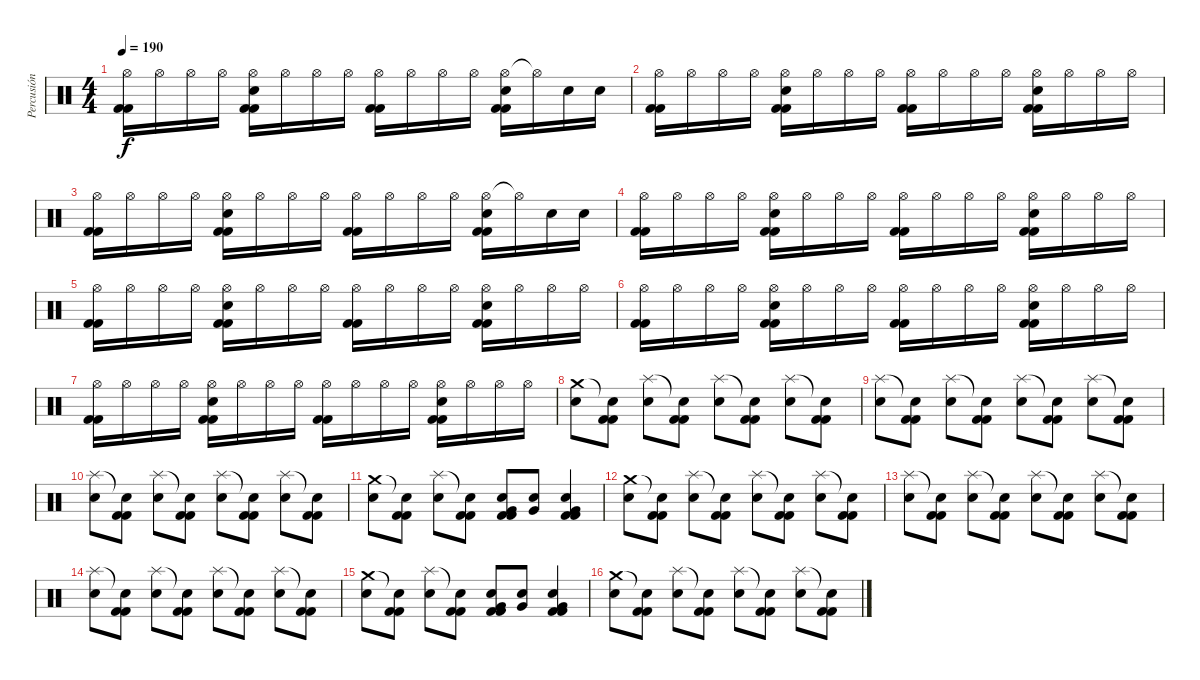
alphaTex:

\track ("Percusión" "Percusión") {instrument percussion}
\staff {score}
\articulation defaults
\ts (4 4)
\tempo 190
\clef neutral
\ks c
("Hi-Hat (open)" "Kick (hit) 2" "Kick (hit) 2").16{dy f} "Hi-Hat (open)".16 "Hi-Hat (open)".16 "Hi-Hat (open)".16 ("Hi-Hat (open)" "Electric Snare (hit)" "Kick (hit) 2" "Kick (hit) 2").16 "Hi-Hat (open)".16 "Hi-Hat (open)".16 "Hi-Hat (open)".16 ("Hi-Hat (open)" "Kick (hit) 2" "Kick (hit) 2").16 "Hi-Hat (open)".16 "Hi-Hat (open)".16 "Hi-Hat (open)".16 ("Hi-Hat (open)" "Electric Snare (hit)" "Kick (hit) 2" "Kick (hit) 2").16 "Hi-Hat (open)"{t}.16 "Electric Snare (hit)".16 "Electric Snare (hit)".16 |
("Hi-Hat (open)" "Kick (hit) 2" "Kick (hit) 2").16 "Hi-Hat (open)".16 "Hi-Hat (open)".16 "Hi-Hat (open)".16 ("Hi-Hat (open)" "Electric Snare (hit)" "Kick (hit) 2" "Kick (hit) 2").16 "Hi-Hat (open)".16 "Hi-Hat (open)".16 "Hi-Hat (open)".16 ("Hi-Hat (open)" "Kick (hit) 2" "Kick (hit) 2").16 "Hi-Hat (open)".16 "Hi-Hat (open)".16 "Hi-Hat (open)".16 ("Hi-Hat (open)" "Electric Snare (hit)" "Kick (hit) 2" "Kick (hit) 2").16 "Hi-Hat (open)".16 "Hi-Hat (open)".16 "Hi-Hat (open)".16 |
("Hi-Hat (open)" "Kick (hit) 2" "Kick (hit) 2").16 "Hi-Hat (open)".16 "Hi-Hat (open)".16 "Hi-Hat (open)".16 ("Hi-Hat (open)" "Electric Snare (hit)" "Kick (hit) 2" "Kick (hit) 2").16 "Hi-Hat (open)".16 "Hi-Hat (open)".16 "Hi-Hat (open)".16 ("Hi-Hat (open)" "Kick (hit) 2" "Kick (hit) 2").16 "Hi-Hat (open)".16 "Hi-Hat (open)".16 "Hi-Hat (open)".16 ("Hi-Hat (open)" "Electric Snare (hit)" "Kick (hit) 2" "Kick (hit) 2").16 "Hi-Hat (open)"{t}.16 "Electric Snare (hit)".16 "Electric Snare (hit)".16 |
("Hi-Hat (open)" "Kick (hit) 2" "Kick (hit) 2").16 "Hi-Hat (open)".16 "Hi-Hat (open)".16 "Hi-Hat (open)".16 ("Hi-Hat (open)" "Electric Snare (hit)" "Kick (hit) 2" "Kick (hit) 2").16 "Hi-Hat (open)".16 "Hi-Hat (open)".16 "Hi-Hat (open)".16 ("Hi-Hat (open)" "Kick (hit) 2" "Kick (hit) 2").16 "Hi-Hat (open)".16 "Hi-Hat (open)".16 "Hi-Hat (open)".16 ("Hi-Hat (open)" "Electric Snare (hit)" "Kick (hit) 2" "Kick (hit) 2").16 "Hi-Hat (open)".16 "Hi-Hat (open)".16 "Hi-Hat (open)".16 |
("Hi-Hat (open)" "Kick (hit) 2" "Kick (hit) 2").16 "Hi-Hat (open)".16 "Hi-Hat (open)".16 "Hi-Hat (open)".16 ("Hi-Hat (open)" "Electric Snare (hit)" "Kick (hit) 2" "Kick (hit) 2").16 "Hi-Hat (open)".16 "Hi-Hat (open)".16 "Hi-Hat (open)".16 ("Hi-Hat (open)" "Kick (hit) 2" "Kick (hit) 2").16 "Hi-Hat (open)".16 "Hi-Hat (open)".16 "Hi-Hat (open)".16 ("Hi-Hat (open)" "Electric Snare (hit)" "Kick (hit) 2" "Kick (hit) 2").16 "Hi-Hat (open)".16 "Hi-Hat (open)".16 "Hi-Hat (open)".16 |
("Hi-Hat (open)" "Kick (hit) 2" "Kick (hit) 2").16 "Hi-Hat (open)".16 "Hi-Hat (open)".16 "Hi-Hat (open)".16 ("Hi-Hat (open)" "Electric Snare (hit)" "Kick (hit) 2" "Kick (hit) 2").16 "Hi-Hat (open)".16 "Hi-Hat (open)".16 "Hi-Hat (open)".16 ("Hi-Hat (open)" "Kick (hit) 2" "Kick (hit) 2").16 "Hi-Hat (open)".16 "Hi-Hat (open)".16 "Hi-Hat (open)".16 ("Hi-Hat (open)" "Electric Snare (hit)" "Kick (hit) 2" "Kick (hit) 2").16 "Hi-Hat (open)".16 "Hi-Hat (open)".16 "Hi-Hat (open)".16 |
("Hi-Hat (open)" "Kick (hit) 2" "Kick (hit) 2").16 "Hi-Hat (open)".16 "Hi-Hat (open)".16 "Hi-Hat (open)".16 ("Hi-Hat (open)" "Electric Snare (hit)" "Kick (hit) 2" "Kick (hit) 2").16 "Hi-Hat (open)".16 "Hi-Hat (open)".16 "Hi-Hat (open)".16 ("Hi-Hat (open)" "Kick (hit) 2" "Kick (hit) 2").16 "Hi-Hat (open)".16 "Hi-Hat (open)".16 "Hi-Hat (open)".16 ("Hi-Hat (open)" "Electric Snare (hit)" "Kick (hit) 2" "Kick (hit) 2").16 "Hi-Hat (open)".16 "Hi-Hat (open)".16 "Hi-Hat (open)".16 |
("Crash medium (hit)" "Electric Snare (hit)").8 ("Snare (hit)"{t} "Kick (hit) 2" "Kick (hit) 2").8 ("Splash (hit)" "Electric Snare (hit)").8 ("Snare (hit)"{t} "Kick (hit) 2" "Kick (hit) 2").8 ("Splash (hit)" "Electric Snare (hit)").8 ("Snare (hit)"{t} "Kick (hit) 2" "Kick (hit) 2").8 ("Splash (hit)" "Electric Snare (hit)").8 ("Snare (hit)"{t} "Kick (hit) 2" "Kick (hit) 2").8 |
("Splash (hit)" "Electric Snare (hit)").8 ("Snare (hit)"{t} "Kick (hit) 2" "Kick (hit) 2").8 ("Splash (hit)" "Electric Snare (hit)").8 ("Snare (hit)"{t} "Kick (hit) 2" "Kick (hit) 2").8 ("Splash (hit)" "Electric Snare (hit)").8 ("Snare (hit)"{t} "Kick (hit) 2" "Kick (hit) 2").8 ("Splash (hit)" "Electric Snare (hit)").8 ("Snare (hit)"{t} "Kick (hit) 2" "Kick (hit) 2").8 |
("Splash (hit)" "Electric Snare (hit)").8 ("Snare (hit)"{t} "Kick (hit) 2" "Kick (hit) 2").8 ("Splash (hit)" "Electric Snare (hit)").8 ("Snare (hit)"{t} "Kick (hit) 2" "Kick (hit) 2").8 ("Splash (hit)" "Electric Snare (hit)").8 ("Snare (hit)"{t} "Kick (hit) 2" "Kick (hit) 2").8 ("Splash (hit)" "Electric Snare (hit)").8 ("Snare (hit)"{t} "Kick (hit) 2" "Kick (hit) 2").8 |
("Crash medium (hit)" "Electric Snare (hit)").8 ("Snare (hit)"{t} "Kick (hit) 2" "Kick (hit) 2").8 ("Splash (hit)" "Electric Snare (hit)").8 ("Snare (hit)"{t} "Kick (hit) 2" "Kick (hit) 2").8 ("Electric Snare (hit)" "Very Low Tom (hit)" "Kick (hit) 2" "Kick (hit) 2").8 ("Electric Snare (hit)" "Very Low Tom (hit)").8 ("Electric Snare (hit)" "Very Low Tom (hit)" "Kick (hit) 2" "Kick (hit) 2").4 |
("Crash medium (hit)" "Electric Snare (hit)").8 ("Snare (hit)"{t} "Kick (hit) 2" "Kick (hit) 2").8 ("Splash (hit)" "Electric Snare (hit)").8 ("Snare (hit)"{t} "Kick (hit) 2" "Kick (hit) 2").8 ("Splash (hit)" "Electric Snare (hit)").8 ("Snare (hit)"{t} "Kick (hit) 2" "Kick (hit) 2").8 ("Splash (hit)" "Electric Snare (hit)").8 ("Snare (hit)"{t} "Kick (hit) 2" "Kick (hit) 2").8 |
("Splash (hit)" "Electric Snare (hit)").8 ("Snare (hit)"{t} "Kick (hit) 2" "Kick (hit) 2").8 ("Splash (hit)" "Electric Snare (hit)").8 ("Snare (hit)"{t} "Kick (hit) 2" "Kick (hit) 2").8 ("Splash (hit)" "Electric Snare (hit)").8 ("Snare (hit)"{t} "Kick (hit) 2" "Kick (hit) 2").8 ("Splash (hit)" "Electric Snare (hit)").8 ("Snare (hit)"{t} "Kick (hit) 2" "Kick (hit) 2").8 |
("Splash (hit)" "Electric Snare (hit)").8 ("Snare (hit)"{t} "Kick (hit) 2" "Kick (hit) 2").8 ("Splash (hit)" "Electric Snare (hit)").8 ("Snare (hit)"{t} "Kick (hit) 2" "Kick (hit) 2").8 ("Splash (hit)" "Electric Snare (hit)").8 ("Snare (hit)"{t} "Kick (hit) 2" "Kick (hit) 2").8 ("Splash (hit)" "Electric Snare (hit)").8 ("Snare (hit)"{t} "Kick (hit) 2" "Kick (hit) 2").8 |
("Crash medium (hit)" "Electric Snare (hit)").8 ("Snare (hit)"{t} "Kick (hit) 2" "Kick (hit) 2").8 ("Splash (hit)" "Electric Snare (hit)").8 ("Snare (hit)"{t} "Kick (hit) 2" "Kick (hit) 2").8 ("Electric Snare (hit)" "Very Low Tom (hit)" "Kick (hit) 2" "Kick (hit) 2").8 ("Electric Snare (hit)" "Very Low Tom (hit)").8 ("Electric Snare (hit)" "Very Low Tom (hit)" "Kick (hit) 2" "Kick (hit) 2").4 |
("Crash medium (hit)" "Electric Snare (hit)").8 ("Snare (hit)"{t} "Kick (hit) 2" "Kick (hit) 2").8 ("Splash (hit)" "Electric Snare (hit)").8 ("Snare (hit)"{t} "Kick (hit) 2" "Kick (hit) 2").8 ("Splash (hit)" "Electric Snare (hit)").8 ("Snare (hit)"{t} "Kick (hit) 2" "Kick (hit) 2").8 ("Splash (hit)" "Electric Snare (hit)").8 ("Snare (hit)"{t} "Kick (hit) 2" "Kick (hit) 2").8
